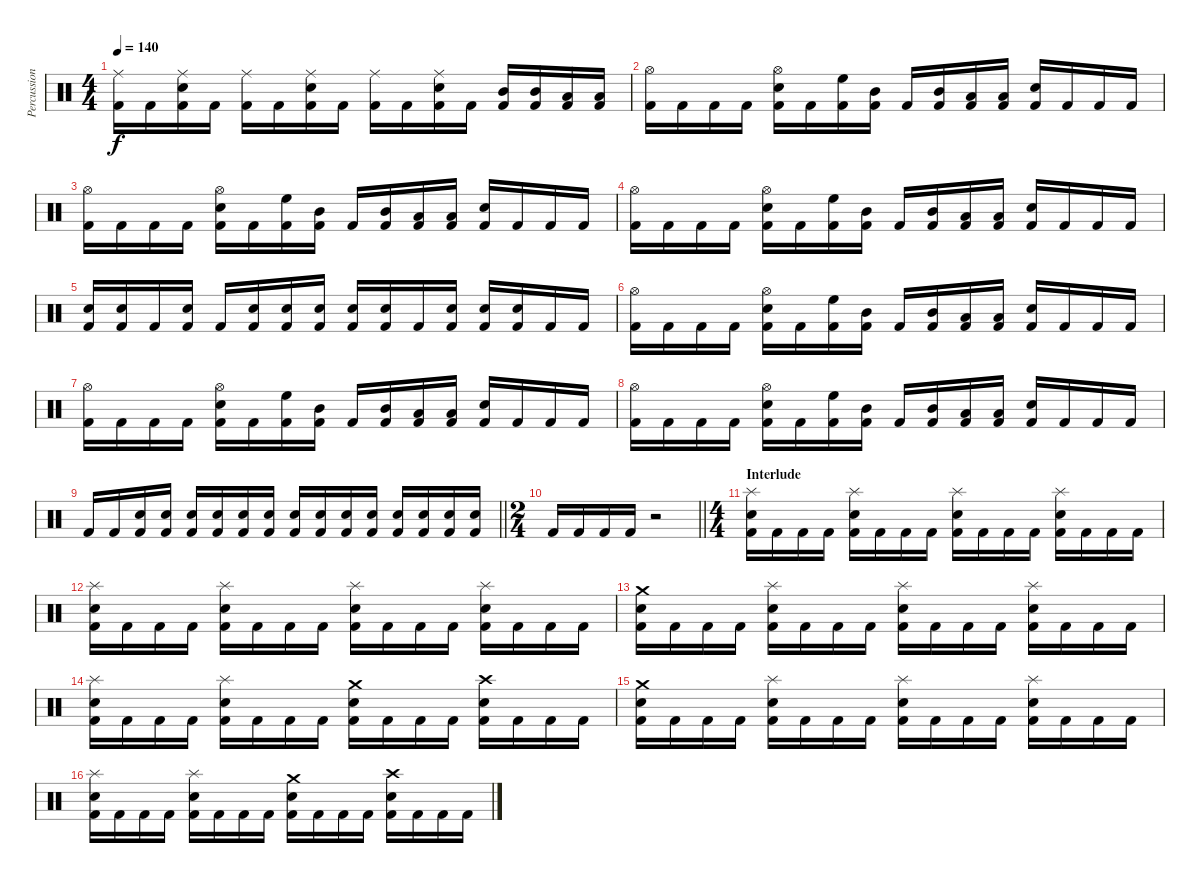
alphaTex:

\track ("Percussion" "Percussion") {instrument percussion}
\staff {score}
\articulation defaults
\ts (4 4)
\tempo 140
\clef neutral
\ks c
("Kick (hit) 2" "Ride (middle)").16{dy f} "Kick (hit) 2".16 ("Kick (hit) 2" "Electric Snare (hit)" "Ride (middle)").16 "Kick (hit) 2".16 ("Kick (hit) 2" "Ride (middle)").16 "Kick (hit) 2".16 ("Kick (hit) 2" "Electric Snare (hit)" "Ride (middle)").16 "Kick (hit) 2".16 ("Kick (hit) 2" "Ride (middle)").16 "Kick (hit) 2".16 ("Kick (hit) 2" "Electric Snare (hit)" "Ride (middle)").16 "Kick (hit) 2".16 ("Kick (hit) 2" "Mid Tom (hit)").16 ("Kick (hit) 2" "Mid Tom (hit)").16 ("Kick (hit) 2" "Low Floor Tom (hit)").16 ("Kick (hit) 2" "Low Floor Tom (hit)").16 |
("Kick (hit) 2" "Hi-Hat (open)").16 "Kick (hit) 2".16 "Kick (hit) 2".16 "Kick (hit) 2".16 ("Kick (hit) 2" "Electric Snare (hit)" "Hi-Hat (open)").16 "Kick (hit) 2".16 ("Kick (hit) 2" "High Floor Tom (hit)").16 ("Kick (hit) 2" "Mid Tom (hit)").16 "Kick (hit) 2".16 ("Kick (hit) 2" "Mid Tom (hit)").16 ("Kick (hit) 2" "Low Floor Tom (hit)").16 ("Kick (hit) 2" "Low Floor Tom (hit)").16 ("Kick (hit) 2" "Electric Snare (hit)").16 "Kick (hit) 2".16 "Kick (hit) 2".16 "Kick (hit) 2".16 |
("Kick (hit) 2" "Hi-Hat (open)").16 "Kick (hit) 2".16 "Kick (hit) 2".16 "Kick (hit) 2".16 ("Kick (hit) 2" "Electric Snare (hit)" "Hi-Hat (open)").16 "Kick (hit) 2".16 ("Kick (hit) 2" "High Floor Tom (hit)").16 ("Kick (hit) 2" "Mid Tom (hit)").16 "Kick (hit) 2".16 ("Kick (hit) 2" "Mid Tom (hit)").16 ("Kick (hit) 2" "Low Floor Tom (hit)").16 ("Kick (hit) 2" "Low Floor Tom (hit)").16 ("Kick (hit) 2" "Electric Snare (hit)").16 "Kick (hit) 2".16 "Kick (hit) 2".16 "Kick (hit) 2".16 |
("Kick (hit) 2" "Hi-Hat (open)").16 "Kick (hit) 2".16 "Kick (hit) 2".16 "Kick (hit) 2".16 ("Kick (hit) 2" "Electric Snare (hit)" "Hi-Hat (open)").16 "Kick (hit) 2".16 ("Kick (hit) 2" "High Floor Tom (hit)").16 ("Kick (hit) 2" "Mid Tom (hit)").16 "Kick (hit) 2".16 ("Kick (hit) 2" "Mid Tom (hit)").16 ("Kick (hit) 2" "Low Floor Tom (hit)").16 ("Kick (hit) 2" "Low Floor Tom (hit)").16 ("Kick (hit) 2" "Electric Snare (hit)").16 "Kick (hit) 2".16 "Kick (hit) 2".16 "Kick (hit) 2".16 |
("Kick (hit) 2" "Electric Snare (hit)").16 ("Kick (hit) 2" "Electric Snare (hit)").16 "Kick (hit) 2".16 ("Kick (hit) 2" "Electric Snare (hit)").16 "Kick (hit) 2".16 ("Kick (hit) 2" "Electric Snare (hit)").16 ("Kick (hit) 2" "Electric Snare (hit)").16 ("Kick (hit) 2" "Electric Snare (hit)").16 ("Kick (hit) 2" "Electric Snare (hit)").16 ("Kick (hit) 2" "Electric Snare (hit)").16 "Kick (hit) 2".16 ("Kick (hit) 2" "Electric Snare (hit)").16 ("Kick (hit) 2" "Electric Snare (hit)").16 ("Kick (hit) 2" "Electric Snare (hit)").16 "Kick (hit) 2".16 "Kick (hit) 2".16 |
("Kick (hit) 2" "Hi-Hat (open)").16 "Kick (hit) 2".16 "Kick (hit) 2".16 "Kick (hit) 2".16 ("Kick (hit) 2" "Electric Snare (hit)" "Hi-Hat (open)").16 "Kick (hit) 2".16 ("Kick (hit) 2" "High Floor Tom (hit)").16 ("Kick (hit) 2" "Mid Tom (hit)").16 "Kick (hit) 2".16 ("Kick (hit) 2" "Mid Tom (hit)").16 ("Kick (hit) 2" "Low Floor Tom (hit)").16 ("Kick (hit) 2" "Low Floor Tom (hit)").16 ("Kick (hit) 2" "Electric Snare (hit)").16 "Kick (hit) 2".16 "Kick (hit) 2".16 "Kick (hit) 2".16 |
("Kick (hit) 2" "Hi-Hat (open)").16 "Kick (hit) 2".16 "Kick (hit) 2".16 "Kick (hit) 2".16 ("Kick (hit) 2" "Electric Snare (hit)" "Hi-Hat (open)").16 "Kick (hit) 2".16 ("Kick (hit) 2" "High Floor Tom (hit)").16 ("Kick (hit) 2" "Mid Tom (hit)").16 "Kick (hit) 2".16 ("Kick (hit) 2" "Mid Tom (hit)").16 ("Kick (hit) 2" "Low Floor Tom (hit)").16 ("Kick (hit) 2" "Low Floor Tom (hit)").16 ("Kick (hit) 2" "Electric Snare (hit)").16 "Kick (hit) 2".16 "Kick (hit) 2".16 "Kick (hit) 2".16 |
("Kick (hit) 2" "Hi-Hat (open)").16 "Kick (hit) 2".16 "Kick (hit) 2".16 "Kick (hit) 2".16 ("Kick (hit) 2" "Electric Snare (hit)" "Hi-Hat (open)").16 "Kick (hit) 2".16 ("Kick (hit) 2" "High Floor Tom (hit)").16 ("Kick (hit) 2" "Mid Tom (hit)").16 "Kick (hit) 2".16 ("Kick (hit) 2" "Mid Tom (hit)").16 ("Kick (hit) 2" "Low Floor Tom (hit)").16 ("Kick (hit) 2" "Low Floor Tom (hit)").16 ("Kick (hit) 2" "Electric Snare (hit)").16 "Kick (hit) 2".16 "Kick (hit) 2".16 "Kick (hit) 2".16 |
\barLineRight lightlight "Kick (hit) 2".16 "Kick (hit) 2".16
("Kick (hit) 2" "Electric Snare (hit)").16 ("Kick (hit) 2" "Electric Snare (hit)").16 ("Kick (hit) 2" "Electric Snare (hit)").16 ("Kick (hit) 2" "Electric Snare (hit)").16 ("Kick (hit) 2" "Electric Snare (hit)").16 ("Kick (hit) 2" "Electric Snare (hit)").16 ("Kick (hit) 2" "Electric Snare (hit)").16 ("Kick (hit) 2" "Electric Snare (hit)").16 ("Kick (hit) 2" "Electric Snare (hit)").16 ("Kick (hit) 2" "Electric Snare (hit)").16 ("Kick (hit) 2" "Electric Snare (hit)").16 ("Kick (hit) 2" "Electric Snare (hit)").16 ("Kick (hit) 2" "Electric Snare (hit)").16 ("Kick (hit) 2" "Electric Snare (hit)").16 |
\ts (2 4)
\section ("" "")
\barLineRight lightlight "Kick (hit) 2".16 "Kick (hit) 2".16 "Kick (hit) 2".16 "Kick (hit) 2".16
r.2 |
\ts (4 4)
\section ("" "Interlude")
("Kick (hit) 2" "Electric Snare (hit)" "Splash (hit)").16 "Kick (hit) 2".16 "Kick (hit) 2".16 "Kick (hit) 2".16 ("Kick (hit) 2" "Electric Snare (hit)" "Splash (hit)").16 "Kick (hit) 2".16 "Kick (hit) 2".16 "Kick (hit) 2".16 ("Kick (hit) 2" "Electric Snare (hit)" "Splash (hit)").16 "Kick (hit) 2".16 "Kick (hit) 2".16 "Kick (hit) 2".16 ("Kick (hit) 2" "Electric Snare (hit)" "Splash (hit)").16 "Kick (hit) 2".16 "Kick (hit) 2".16 "Kick (hit) 2".16 |
("Kick (hit) 2" "Electric Snare (hit)" "Splash (hit)").16 "Kick (hit) 2".16 "Kick (hit) 2".16 "Kick (hit) 2".16 ("Kick (hit) 2" "Electric Snare (hit)" "Splash (hit)").16 "Kick (hit) 2".16 "Kick (hit) 2".16 "Kick (hit) 2".16 ("Kick (hit) 2" "Electric Snare (hit)" "Splash (hit)").16 "Kick (hit) 2".16 "Kick (hit) 2".16 "Kick (hit) 2".16 ("Kick (hit) 2" "Electric Snare (hit)" "Splash (hit)").16 "Kick (hit) 2".16 "Kick (hit) 2".16 "Kick (hit) 2".16 |
("Kick (hit) 2" "Electric Snare (hit)" "Crash medium (hit)").16 "Kick (hit) 2".16 "Kick (hit) 2".16 "Kick (hit) 2".16 ("Kick (hit) 2" "Electric Snare (hit)" "Splash (hit)").16 "Kick (hit) 2".16 "Kick (hit) 2".16 "Kick (hit) 2".16 ("Kick (hit) 2" "Electric Snare (hit)" "Splash (hit)").16 "Kick (hit) 2".16 "Kick (hit) 2".16 "Kick (hit) 2".16 ("Kick (hit) 2" "Electric Snare (hit)" "Splash (hit)").16 "Kick (hit) 2".16 "Kick (hit) 2".16 "Kick (hit) 2".16 |
("Kick (hit) 2" "Electric Snare (hit)" "Splash (hit)").16 "Kick (hit) 2".16 "Kick (hit) 2".16 "Kick (hit) 2".16 ("Kick (hit) 2" "Electric Snare (hit)" "Splash (hit)").16 "Kick (hit) 2".16 "Kick (hit) 2".16 "Kick (hit) 2".16 ("Kick (hit) 2" "Electric Snare (hit)" "Crash medium (hit)").16 "Kick (hit) 2".16 "Kick (hit) 2".16 "Kick (hit) 2".16 ("Kick (hit) 2" "Electric Snare (hit)" "Crash high (hit)").16 "Kick (hit) 2".16 "Kick (hit) 2".16 "Kick (hit) 2".16 |
("Kick (hit) 2" "Electric Snare (hit)" "Crash medium (hit)").16 "Kick (hit) 2".16 "Kick (hit) 2".16 "Kick (hit) 2".16 ("Kick (hit) 2" "Electric Snare (hit)" "Splash (hit)").16 "Kick (hit) 2".16 "Kick (hit) 2".16 "Kick (hit) 2".16 ("Kick (hit) 2" "Electric Snare (hit)" "Splash (hit)").16 "Kick (hit) 2".16 "Kick (hit) 2".16 "Kick (hit) 2".16 ("Kick (hit) 2" "Electric Snare (hit)" "Splash (hit)").16 "Kick (hit) 2".16 "Kick (hit) 2".16 "Kick (hit) 2".16 |
("Kick (hit) 2" "Electric Snare (hit)" "Splash (hit)").16 "Kick (hit) 2".16 "Kick (hit) 2".16 "Kick (hit) 2".16 ("Kick (hit) 2" "Electric Snare (hit)" "Splash (hit)").16 "Kick (hit) 2".16 "Kick (hit) 2".16 "Kick (hit) 2".16 ("Kick (hit) 2" "Electric Snare (hit)" "Crash medium (hit)").16 "Kick (hit) 2".16 "Kick (hit) 2".16 "Kick (hit) 2".16 ("Kick (hit) 2" "Electric Snare (hit)" "Crash high (hit)").16 "Kick (hit) 2".16 "Kick (hit) 2".16 "Kick (hit) 2".16
